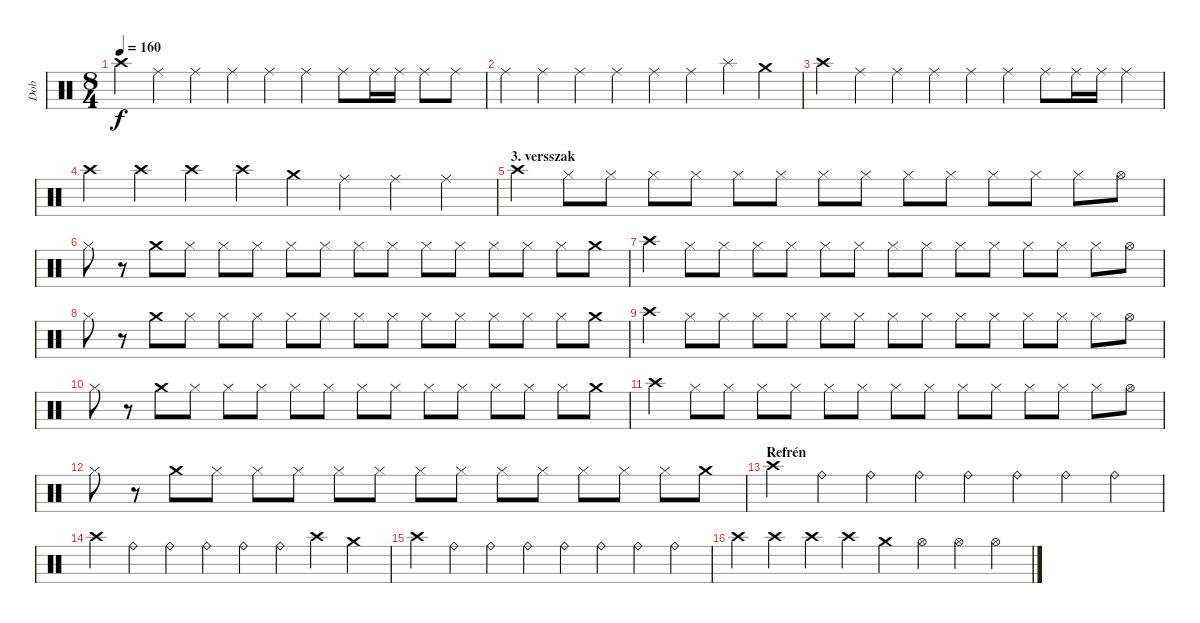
\track ("Dob" "Dob") {instrument percussion}
\staff {score}
\articulation defaults
\ts (8 4)
\tempo 160
\clef neutral
\ks c "Crash high (hit)".4{dy f} "Ride (middle)".4 "Ride (middle)".4 "Ride (middle)".4 "Ride (middle)".4 "Ride (middle)".4 "Ride (middle)".8 "Ride (middle)".16 "Ride (middle)".16 "Ride (middle)".8 "Ride (middle)".8
|
"Ride (middle)".4 "Ride (middle)".4 "Ride (middle)".4 "Ride (middle)".4 "Ride (middle)".4 "Ride (middle)".4 "Splash (hit)".4 "Crash medium (hit)".4 |
"Crash high (hit)".4 "Ride (middle)".4 "Ride (middle)".4 "Ride (middle)".4 "Ride (middle)".4 "Ride (middle)".4 "Ride (middle)".8 "Ride (middle)".16 "Ride (middle)".16 "Ride (middle)".4 |
"Crash high (hit)".4 "Crash high (hit)".4 "Crash high (hit)".4 "Crash high (hit)".4 "Crash medium (hit)".4 "Ride (middle)".4 "Ride (middle)".4 "Ride (middle)".4 |
\section ("" "3. versszak")
"Crash high (hit)".4 "Hi-Hat (closed)".8 "Hi-Hat (closed)".8 "Hi-Hat (closed)".8 "Hi-Hat (closed)".8 "Hi-Hat (closed)".8 "Hi-Hat (closed)".8 "Hi-Hat (closed)".8 "Hi-Hat (closed)".8 "Hi-Hat (closed)".8 "Hi-Hat (closed)".8 "Hi-Hat (closed)".8 "Hi-Hat (closed)".8 "Hi-Hat (closed)".8 "Hi-Hat (open)".8 |
"Hi-Hat (closed)".8 r.8 "Crash medium (hit)".8 "Hi-Hat (closed)".8 "Hi-Hat (closed)".8 "Hi-Hat (closed)".8 "Hi-Hat (closed)".8 "Hi-Hat (closed)".8 "Hi-Hat (closed)".8 "Hi-Hat (closed)".8 "Hi-Hat (closed)".8 "Hi-Hat (closed)".8 "Hi-Hat (closed)".8 "Hi-Hat (closed)".8 "Hi-Hat (closed)".8 "Crash medium (hit)".8 |
"Crash high (hit)".4 "Hi-Hat (closed)".8 "Hi-Hat (closed)".8 "Hi-Hat (closed)".8 "Hi-Hat (closed)".8 "Hi-Hat (closed)".8 "Hi-Hat (closed)".8 "Hi-Hat (closed)".8 "Hi-Hat (closed)".8 "Hi-Hat (closed)".8 "Hi-Hat (closed)".8 "Hi-Hat (closed)".8 "Hi-Hat (closed)".8 "Hi-Hat (closed)".8 "Hi-Hat (open)".8 |
"Hi-Hat (closed)".8 r.8 "Crash medium (hit)".8 "Hi-Hat (closed)".8 "Hi-Hat (closed)".8 "Hi-Hat (closed)".8 "Hi-Hat (closed)".8 "Hi-Hat (closed)".8 "Hi-Hat (closed)".8 "Hi-Hat (closed)".8 "Hi-Hat (closed)".8 "Hi-Hat (closed)".8 "Hi-Hat (closed)".8 "Hi-Hat (closed)".8 "Hi-Hat (closed)".8 "Crash medium (hit)".8 |
"Crash high (hit)".4 "Hi-Hat (closed)".8 "Hi-Hat (closed)".8 "Hi-Hat (closed)".8 "Hi-Hat (closed)".8 "Hi-Hat (closed)".8 "Hi-Hat (closed)".8 "Hi-Hat (closed)".8 "Hi-Hat (closed)".8 "Hi-Hat (closed)".8 "Hi-Hat (closed)".8 "Hi-Hat (closed)".8 "Hi-Hat (closed)".8 "Hi-Hat (closed)".8 "Hi-Hat (open)".8 |
"Hi-Hat (closed)".8 r.8 "Crash medium (hit)".8 "Hi-Hat (closed)".8 "Hi-Hat (closed)".8 "Hi-Hat (closed)".8 "Hi-Hat (closed)".8 "Hi-Hat (closed)".8 "Hi-Hat (closed)".8 "Hi-Hat (closed)".8 "Hi-Hat (closed)".8 "Hi-Hat (closed)".8 "Hi-Hat (closed)".8 "Hi-Hat (closed)".8 "Hi-Hat (closed)".8 "Crash medium (hit)".8 |
"Crash high (hit)".4 "Hi-Hat (closed)".8 "Hi-Hat (closed)".8 "Hi-Hat (closed)".8 "Hi-Hat (closed)".8 "Hi-Hat (closed)".8 "Hi-Hat (closed)".8 "Hi-Hat (closed)".8 "Hi-Hat (closed)".8 "Hi-Hat (closed)".8 "Hi-Hat (closed)".8 "Hi-Hat (closed)".8 "Hi-Hat (closed)".8 "Hi-Hat (closed)".8 "Hi-Hat (open)".8 |
"Hi-Hat (closed)".8 r.8 "Crash medium (hit)".8 "Hi-Hat (closed)".8 "Hi-Hat (closed)".8 "Hi-Hat (closed)".8 "Hi-Hat (closed)".8 "Hi-Hat (closed)".8 "Hi-Hat (closed)".8 "Hi-Hat (closed)".8 "Hi-Hat (closed)".8 "Hi-Hat (closed)".8 "Hi-Hat (closed)".8 "Hi-Hat (closed)".8 "Hi-Hat (closed)".8 "Crash medium (hit)".8 |
\section ("" "Refrén")
"Crash high (hit)".4 "Ride (bell)".4 "Ride (bell)".4 "Ride (bell)".4 "Ride (bell)".4 "Ride (bell)".4 "Ride (bell)".4 "Ride (bell)".4 |
"Crash high (hit)".4 "Ride (bell)".4 "Ride (bell)".4 "Ride (bell)".4 "Ride (bell)".4 "Ride (bell)".4 "Crash high (hit)".4 "Crash medium (hit)".4 |
"Crash high (hit)".4 "Ride (bell)".4 "Ride (bell)".4 "Ride (bell)".4 "Ride (bell)".4 "Ride (bell)".4 "Ride (bell)".4 "Ride (bell)".4 |
"Crash high (hit)".4 "Crash high (hit)".4 "Crash high (hit)".4 "Crash high (hit)".4 "Crash medium (hit)".4 "Hi-Hat (open)".4 "Hi-Hat (open)".4 "Hi-Hat (open)".4
